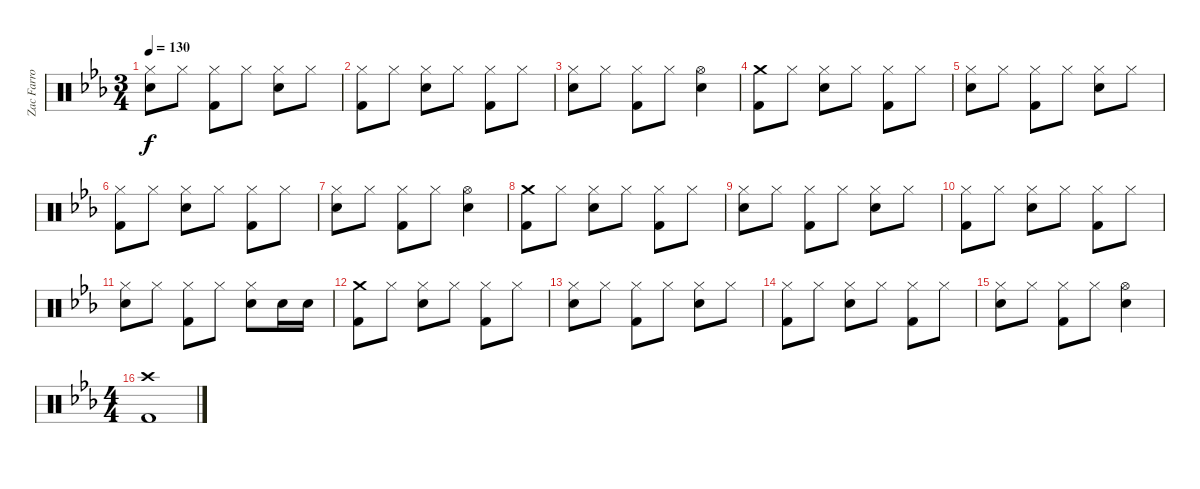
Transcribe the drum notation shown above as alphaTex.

\track ("Zac Farro (Drums)" "Zac Farro ") {instrument percussion}
\staff {score}
\articulation defaults
\ts (3 4)
\tempo 130
\clef neutral
\ks eb
("Hi-Hat (closed)" "Electric Snare (hit)").8{dy f} "Hi-Hat (closed)".8 ("Hi-Hat (closed)" "Kick (hit) 2").8 "Hi-Hat (closed)".8 ("Hi-Hat (closed)" "Electric Snare (hit)").8 "Hi-Hat (closed)".8 |
("Hi-Hat (closed)" "Kick (hit) 2").8 "Hi-Hat (closed)".8 ("Hi-Hat (closed)" "Electric Snare (hit)").8 "Hi-Hat (closed)".8 ("Hi-Hat (closed)" "Kick (hit) 2").8 "Hi-Hat (closed)".8 |
("Hi-Hat (closed)" "Electric Snare (hit)").8 "Hi-Hat (closed)".8 ("Hi-Hat (closed)" "Kick (hit) 2").8 "Hi-Hat (closed)".8 ("Hi-Hat (open)" "Electric Snare (hit)").4 |
("Crash medium (hit)" "Kick (hit) 2").8 "Hi-Hat (closed)".8 ("Hi-Hat (closed)" "Electric Snare (hit)").8 "Hi-Hat (closed)".8 ("Hi-Hat (closed)" "Kick (hit) 2").8 "Hi-Hat (closed)".8 |
("Hi-Hat (closed)" "Electric Snare (hit)").8 "Hi-Hat (closed)".8 ("Hi-Hat (closed)" "Kick (hit) 2").8 "Hi-Hat (closed)".8 ("Hi-Hat (closed)" "Electric Snare (hit)").8 "Hi-Hat (closed)".8 |
("Hi-Hat (closed)" "Kick (hit) 2").8 "Hi-Hat (closed)".8 ("Hi-Hat (closed)" "Electric Snare (hit)").8 "Hi-Hat (closed)".8 ("Hi-Hat (closed)" "Kick (hit) 2").8 "Hi-Hat (closed)".8 |
("Hi-Hat (closed)" "Electric Snare (hit)").8 "Hi-Hat (closed)".8 ("Hi-Hat (closed)" "Kick (hit) 2").8 "Hi-Hat (closed)".8 ("Hi-Hat (open)" "Electric Snare (hit)").4 |
("Crash medium (hit)" "Kick (hit) 2").8 "Hi-Hat (closed)".8 ("Hi-Hat (closed)" "Electric Snare (hit)").8 "Hi-Hat (closed)".8 ("Hi-Hat (closed)" "Kick (hit) 2").8 "Hi-Hat (closed)".8 |
("Hi-Hat (closed)" "Electric Snare (hit)").8 "Hi-Hat (closed)".8 ("Hi-Hat (closed)" "Kick (hit) 2").8 "Hi-Hat (closed)".8 ("Hi-Hat (closed)" "Electric Snare (hit)").8 "Hi-Hat (closed)".8 |
("Hi-Hat (closed)" "Kick (hit) 2").8 "Hi-Hat (closed)".8 ("Hi-Hat (closed)" "Electric Snare (hit)").8 "Hi-Hat (closed)".8 ("Hi-Hat (closed)" "Kick (hit) 2").8 "Hi-Hat (closed)".8 |
("Hi-Hat (closed)" "Electric Snare (hit)").8 "Hi-Hat (closed)".8 ("Hi-Hat (closed)" "Kick (hit) 2").8 "Hi-Hat (closed)".8 ("Hi-Hat (closed)" "Electric Snare (hit)").8 "Electric Snare (hit)".16 "Electric Snare (hit)".16 |
("Crash medium (hit)" "Kick (hit) 2").8 "Hi-Hat (closed)".8 ("Hi-Hat (closed)" "Electric Snare (hit)").8 "Hi-Hat (closed)".8 ("Hi-Hat (closed)" "Kick (hit) 2").8 "Hi-Hat (closed)".8 |
("Hi-Hat (closed)" "Electric Snare (hit)").8 "Hi-Hat (closed)".8 ("Hi-Hat (closed)" "Kick (hit) 2").8 "Hi-Hat (closed)".8 ("Hi-Hat (closed)" "Electric Snare (hit)").8 "Hi-Hat (closed)".8 |
("Hi-Hat (closed)" "Kick (hit) 2").8 "Hi-Hat (closed)".8 ("Hi-Hat (closed)" "Electric Snare (hit)").8 "Hi-Hat (closed)".8 ("Hi-Hat (closed)" "Kick (hit) 2").8 "Hi-Hat (closed)".8 |
("Hi-Hat (closed)" "Electric Snare (hit)").8 "Hi-Hat (closed)".8 ("Hi-Hat (closed)" "Kick (hit) 2").8 "Hi-Hat (closed)".8 ("Hi-Hat (open)" "Electric Snare (hit)").4 |
\ts (4 4)
("Crash high (hit)" "Kick (hit) 2").1
